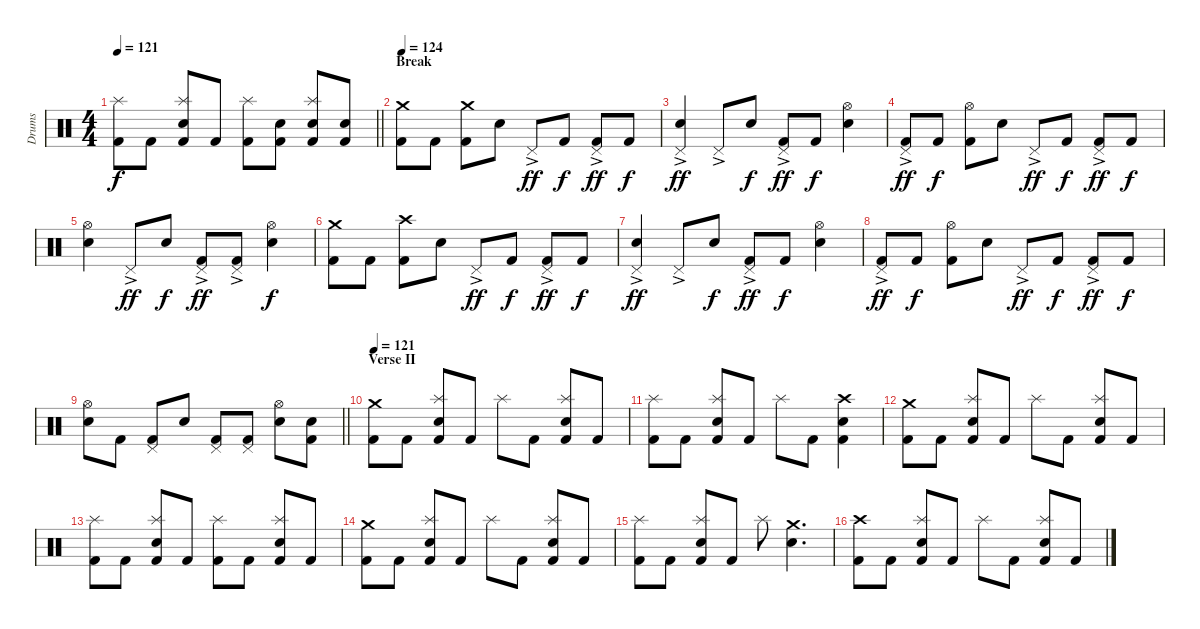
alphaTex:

\track ("Drums" "Drums") {instrument percussion}
\staff {score}
\articulation defaults
\ts (4 4)
\tempo 121
\clef neutral
\barLineRight lightlight
\ks c
("Kick (hit) 2" "Splash (hit)").8{dy f} "Kick (hit) 2".8 ("Kick (hit) 2" "Snare (hit) 2" "Splash (hit)").8 "Kick (hit) 2".8 ("Kick (hit) 2" "Splash (hit)").8 ("Kick (hit) 2" "Snare (hit) 2").8 ("Kick (hit) 2" "Snare (hit) 2" "Splash (hit)").8 ("Kick (hit) 2" "Snare (hit) 2").8 |
\section ("" "Break")
\tempo 124
("Kick (hit) 2" "Crash medium (hit)").8 "Kick (hit) 2".8 ("Kick (hit) 2" "Crash medium (hit)").8 "Snare (hit) 2".8 "Pedal Hi-Hat (hit)"{ac}.8{dy ff} "Kick (hit) 2".8{dy f} ("Kick (hit) 2" "Pedal Hi-Hat (hit)"{ac}).8{dy ff} "Kick (hit) 2".8{dy f} |
("Snare (hit) 2" "Pedal Hi-Hat (hit)"{ac}).4{dy ff} "Pedal Hi-Hat (hit)"{ac}.8 "Snare (hit) 2".8{dy f} ("Kick (hit) 2" "Pedal Hi-Hat (hit)"{ac}).8{dy ff} "Kick (hit) 2".8{dy f} ("Snare (hit) 2" "Hi-Hat (open)").4 |
("Kick (hit) 2" "Pedal Hi-Hat (hit)"{ac}).8{dy ff} "Kick (hit) 2".8{dy f} ("Kick (hit) 2" "Hi-Hat (open)").8 "Snare (hit) 2".8 "Pedal Hi-Hat (hit)"{ac}.8{dy ff} "Kick (hit) 2".8{dy f} ("Kick (hit) 2" "Pedal Hi-Hat (hit)"{ac}).8{dy ff} "Kick (hit) 2".8{dy f} |
("Snare (hit) 2" "Hi-Hat (open)").4 "Pedal Hi-Hat (hit)"{ac}.8{dy ff} "Snare (hit) 2".8{dy f} ("Kick (hit) 2" "Pedal Hi-Hat (hit)"{ac}).8{dy ff} ("Kick (hit) 2" "Pedal Hi-Hat (hit)"{ac}).8 ("Snare (hit) 2" "Hi-Hat (open)").4{dy f} |
("Kick (hit) 2" "Crash medium (hit)").8 "Kick (hit) 2".8 ("Kick (hit) 2" "Crash high (hit)").8 "Snare (hit) 2".8 "Pedal Hi-Hat (hit)"{ac}.8{dy ff} "Kick (hit) 2".8{dy f} ("Kick (hit) 2" "Pedal Hi-Hat (hit)"{ac}).8{dy ff} "Kick (hit) 2".8{dy f} |
("Snare (hit) 2" "Pedal Hi-Hat (hit)"{ac}).4{dy ff} "Pedal Hi-Hat (hit)"{ac}.8 "Snare (hit) 2".8{dy f} ("Kick (hit) 2" "Pedal Hi-Hat (hit)"{ac}).8{dy ff} "Kick (hit) 2".8{dy f} ("Snare (hit) 2" "Hi-Hat (open)").4 |
("Kick (hit) 2" "Pedal Hi-Hat (hit)"{ac}).8{dy ff} "Kick (hit) 2".8{dy f} ("Kick (hit) 2" "Hi-Hat (open)").8 "Snare (hit) 2".8 "Pedal Hi-Hat (hit)"{ac}.8{dy ff} "Kick (hit) 2".8{dy f} ("Kick (hit) 2" "Pedal Hi-Hat (hit)"{ac}).8{dy ff} "Kick (hit) 2".8{dy f} |
\barLineRight lightlight
("Snare (hit) 2" "Hi-Hat (open)").8 "Kick (hit) 2".8 ("Kick (hit) 2" "Pedal Hi-Hat (hit)").8 "Snare (hit) 2".8 ("Kick (hit) 2" "Pedal Hi-Hat (hit)").8 ("Kick (hit) 2" "Pedal Hi-Hat (hit)").8 ("Snare (hit) 2" "Hi-Hat (open)").8 ("Kick (hit) 2" "Snare (hit) 2").8 |
\section ("" "Verse II")
\tempo 121
("Kick (hit) 2" "Crash medium (hit)").8 "Kick (hit) 2".8 ("Kick (hit) 2" "Snare (hit) 2" "Splash (hit)").8 "Kick (hit) 2".8 "Splash (hit)".8 "Kick (hit) 2".8 ("Kick (hit) 2" "Snare (hit) 2" "Splash (hit)").8 "Kick (hit) 2".8 |
("Kick (hit) 2" "Splash (hit)").8 "Kick (hit) 2".8 ("Kick (hit) 2" "Snare (hit) 2" "Splash (hit)").8 "Kick (hit) 2".8 "Splash (hit)".8 "Kick (hit) 2".8 ("Kick (hit) 2" "Snare (hit) 2" "Crash high (hit)").4 |
("Kick (hit) 2" "Crash medium (hit)").8 "Kick (hit) 2".8 ("Kick (hit) 2" "Snare (hit) 2" "Splash (hit)").8 "Kick (hit) 2".8 "Splash (hit)".8 "Kick (hit) 2".8 ("Kick (hit) 2" "Snare (hit) 2" "Splash (hit)").8 "Kick (hit) 2".8 |
("Kick (hit) 2" "Splash (hit)").8 "Kick (hit) 2".8 ("Kick (hit) 2" "Snare (hit) 2" "Splash (hit)").8 "Kick (hit) 2".8 ("Kick (hit) 2" "Splash (hit)").8 "Kick (hit) 2".8 ("Kick (hit) 2" "Snare (hit) 2" "Splash (hit)").8 "Kick (hit) 2".8 |
("Kick (hit) 2" "Crash medium (hit)").8 "Kick (hit) 2".8 ("Kick (hit) 2" "Snare (hit) 2" "Splash (hit)").8 "Kick (hit) 2".8 "Splash (hit)".8 "Kick (hit) 2".8 ("Kick (hit) 2" "Snare (hit) 2" "Splash (hit)").8 "Kick (hit) 2".8 |
("Kick (hit) 2" "Splash (hit)").8 "Kick (hit) 2".8 ("Kick (hit) 2" "Snare (hit) 2" "Splash (hit)").8 "Kick (hit) 2".8 "Splash (hit)".8 ("Snare (hit) 2" "Crash medium (hit)").4{d} |
("Kick (hit) 2" "Crash high (hit)").8 "Kick (hit) 2".8 ("Kick (hit) 2" "Snare (hit) 2" "Splash (hit)").8 "Kick (hit) 2".8 "Splash (hit)".8 "Kick (hit) 2".8 ("Kick (hit) 2" "Snare (hit) 2" "Splash (hit)").8 "Kick (hit) 2".8
